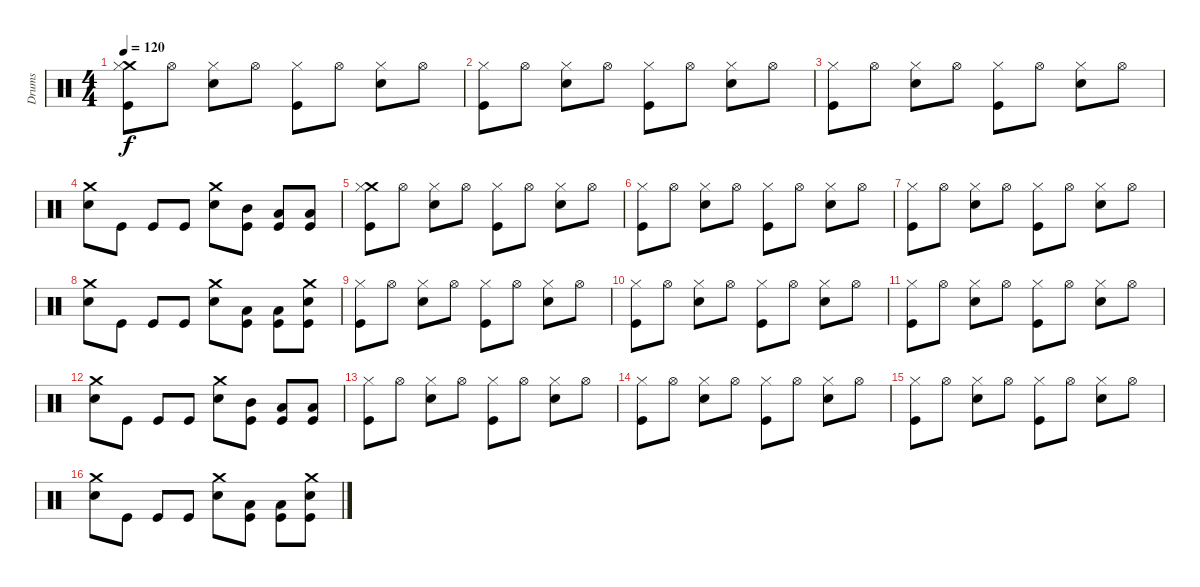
\track ("Drums" "Drums") {instrument percussion}
\staff {score}
\articulation defaults
\ts (4 4)
\tempo 120
\clef neutral
\ks c
("Crash medium (hit)" "Hi-Hat (closed)" "Kick (hit)").8{dy f} "Hi-Hat (open)".8 ("Snare (hit) 2" "Hi-Hat (closed)").8 "Hi-Hat (open)".8 ("Hi-Hat (closed)" "Kick (hit)").8 "Hi-Hat (open)".8 ("Snare (hit) 2" "Hi-Hat (closed)").8 "Hi-Hat (open)".8 |
("Hi-Hat (closed)" "Kick (hit)").8 "Hi-Hat (open)".8 ("Snare (hit) 2" "Hi-Hat (closed)").8 "Hi-Hat (open)".8 ("Hi-Hat (closed)" "Kick (hit)").8 "Hi-Hat (open)".8 ("Snare (hit) 2" "Hi-Hat (closed)").8 "Hi-Hat (open)".8 |
("Hi-Hat (closed)" "Kick (hit)").8 "Hi-Hat (open)".8 ("Snare (hit) 2" "Hi-Hat (closed)").8 "Hi-Hat (open)".8 ("Hi-Hat (closed)" "Kick (hit)").8 "Hi-Hat (open)".8 ("Snare (hit) 2" "Hi-Hat (closed)").8 "Hi-Hat (open)".8 |
("Crash medium (hit)" "Snare (hit) 2").8 "Kick (hit)".8 "Kick (hit)".8 "Kick (hit)".8 ("Crash medium (hit)" "Snare (hit) 2").8 ("Mid Tom (hit)" "Kick (hit)").8 ("Low Tom (hit)" "Kick (hit)").8 ("Low Tom (hit)" "Kick (hit)").8 |
("Crash medium (hit)" "Hi-Hat (closed)" "Kick (hit)").8 "Hi-Hat (open)".8 ("Snare (hit) 2" "Hi-Hat (closed)").8 "Hi-Hat (open)".8 ("Hi-Hat (closed)" "Kick (hit)").8 "Hi-Hat (open)".8 ("Snare (hit) 2" "Hi-Hat (closed)").8 "Hi-Hat (open)".8 |
("Hi-Hat (closed)" "Kick (hit)").8 "Hi-Hat (open)".8 ("Snare (hit) 2" "Hi-Hat (closed)").8 "Hi-Hat (open)".8 ("Hi-Hat (closed)" "Kick (hit)").8 "Hi-Hat (open)".8 ("Snare (hit) 2" "Hi-Hat (closed)").8 "Hi-Hat (open)".8 |
("Hi-Hat (closed)" "Kick (hit)").8 "Hi-Hat (open)".8 ("Snare (hit) 2" "Hi-Hat (closed)").8 "Hi-Hat (open)".8 ("Hi-Hat (closed)" "Kick (hit)").8 "Hi-Hat (open)".8 ("Snare (hit) 2" "Hi-Hat (closed)").8 "Hi-Hat (open)".8 |
("Crash medium (hit)" "Snare (hit) 2").8 "Kick (hit)".8 "Kick (hit)".8 "Kick (hit)".8 ("Crash medium (hit)" "Snare (hit) 2").8 ("Low Tom (hit)" "Kick (hit)").8 ("Low Tom (hit)" "Kick (hit)").8 ("Crash medium (hit)" "Snare (hit) 2" "Kick (hit)").8 |
("Hi-Hat (closed)" "Kick (hit)").8 "Hi-Hat (open)".8 ("Snare (hit) 2" "Hi-Hat (closed)").8 "Hi-Hat (open)".8 ("Hi-Hat (closed)" "Kick (hit)").8 "Hi-Hat (open)".8 ("Snare (hit) 2" "Hi-Hat (closed)").8 "Hi-Hat (open)".8 |
("Hi-Hat (closed)" "Kick (hit)").8 "Hi-Hat (open)".8 ("Snare (hit) 2" "Hi-Hat (closed)").8 "Hi-Hat (open)".8 ("Hi-Hat (closed)" "Kick (hit)").8 "Hi-Hat (open)".8 ("Snare (hit) 2" "Hi-Hat (closed)").8 "Hi-Hat (open)".8 |
("Hi-Hat (closed)" "Kick (hit)").8 "Hi-Hat (open)".8 ("Snare (hit) 2" "Hi-Hat (closed)").8 "Hi-Hat (open)".8 ("Hi-Hat (closed)" "Kick (hit)").8 "Hi-Hat (open)".8 ("Snare (hit) 2" "Hi-Hat (closed)").8 "Hi-Hat (open)".8 |
("Crash medium (hit)" "Snare (hit) 2").8 "Kick (hit)".8 "Kick (hit)".8 "Kick (hit)".8 ("Crash medium (hit)" "Snare (hit) 2").8 ("Mid Tom (hit)" "Kick (hit)").8 ("Low Tom (hit)" "Kick (hit)").8 ("Low Tom (hit)" "Kick (hit)").8 |
("Hi-Hat (closed)" "Kick (hit)").8 "Hi-Hat (open)".8 ("Snare (hit) 2" "Hi-Hat (closed)").8 "Hi-Hat (open)".8 ("Hi-Hat (closed)" "Kick (hit)").8 "Hi-Hat (open)".8 ("Snare (hit) 2" "Hi-Hat (closed)").8 "Hi-Hat (open)".8 |
("Hi-Hat (closed)" "Kick (hit)").8 "Hi-Hat (open)".8 ("Snare (hit) 2" "Hi-Hat (closed)").8 "Hi-Hat (open)".8 ("Hi-Hat (closed)" "Kick (hit)").8 "Hi-Hat (open)".8 ("Snare (hit) 2" "Hi-Hat (closed)").8 "Hi-Hat (open)".8 |
("Hi-Hat (closed)" "Kick (hit)").8 "Hi-Hat (open)".8 ("Snare (hit) 2" "Hi-Hat (closed)").8 "Hi-Hat (open)".8 ("Hi-Hat (closed)" "Kick (hit)").8 "Hi-Hat (open)".8 ("Snare (hit) 2" "Hi-Hat (closed)").8 "Hi-Hat (open)".8 |
("Crash medium (hit)" "Snare (hit) 2").8 "Kick (hit)".8 "Kick (hit)".8 "Kick (hit)".8 ("Crash medium (hit)" "Snare (hit) 2").8 ("Low Tom (hit)" "Kick (hit)").8 ("Low Tom (hit)" "Kick (hit)").8 ("Crash medium (hit)" "Snare (hit) 2" "Kick (hit)").8
